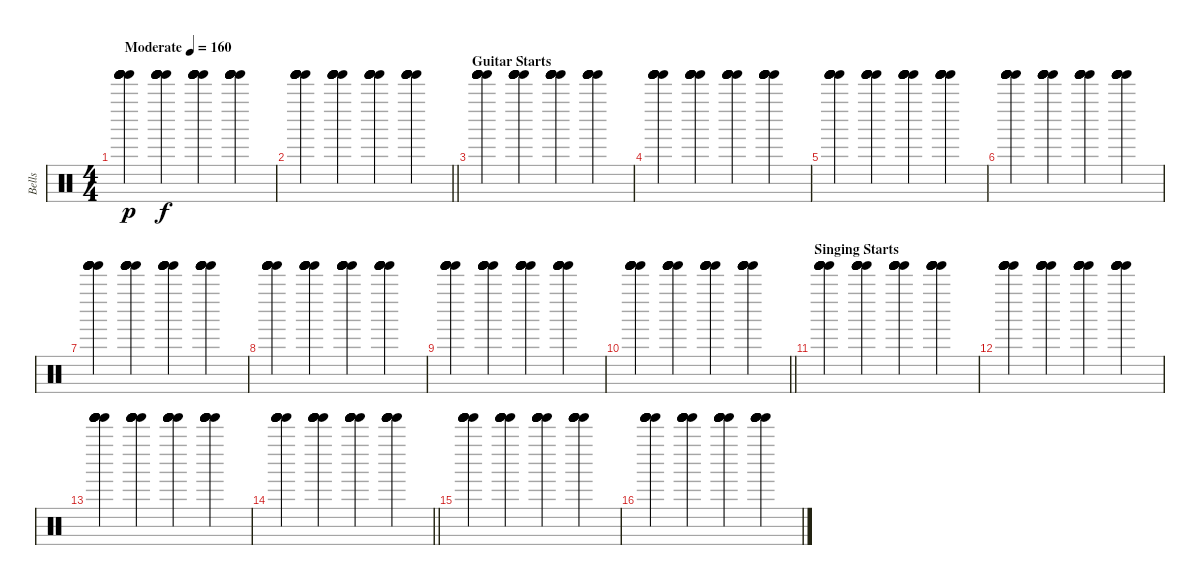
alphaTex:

\track ("Bells" "Bells") {instrument percussion}
\staff {score}
\articulation defaults
\ts (4 4)
\tempo (160 "Moderate")
\clef neutral
\ks c
("Tinkle Bell (hit)" "Tinkle Bell (hit)" "Tinkle Bell (hit)" "Tinkle Bell (hit)" "Tinkle Bell (hit)" "Tinkle Bell (hit)").4{dy p volume 10} ("Tinkle Bell (hit)" "Tinkle Bell (hit)" "Tinkle Bell (hit)" "Tinkle Bell (hit)" "Tinkle Bell (hit)" "Tinkle Bell (hit)").4{dy f} ("Tinkle Bell (hit)" "Tinkle Bell (hit)" "Tinkle Bell (hit)" "Tinkle Bell (hit)" "Tinkle Bell (hit)" "Tinkle Bell (hit)").4 ("Tinkle Bell (hit)" "Tinkle Bell (hit)" "Tinkle Bell (hit)" "Tinkle Bell (hit)" "Tinkle Bell (hit)" "Tinkle Bell (hit)").4 |
\barLineRight lightlight
("Tinkle Bell (hit)" "Tinkle Bell (hit)" "Tinkle Bell (hit)" "Tinkle Bell (hit)" "Tinkle Bell (hit)" "Tinkle Bell (hit)").4 ("Tinkle Bell (hit)" "Tinkle Bell (hit)" "Tinkle Bell (hit)" "Tinkle Bell (hit)" "Tinkle Bell (hit)" "Tinkle Bell (hit)").4 ("Tinkle Bell (hit)" "Tinkle Bell (hit)" "Tinkle Bell (hit)" "Tinkle Bell (hit)" "Tinkle Bell (hit)" "Tinkle Bell (hit)").4 ("Tinkle Bell (hit)" "Tinkle Bell (hit)" "Tinkle Bell (hit)" "Tinkle Bell (hit)" "Tinkle Bell (hit)" "Tinkle Bell (hit)").4 |
\section ("" "Guitar Starts")
("Tinkle Bell (hit)" "Tinkle Bell (hit)" "Tinkle Bell (hit)" "Tinkle Bell (hit)" "Tinkle Bell (hit)" "Tinkle Bell (hit)").4 ("Tinkle Bell (hit)" "Tinkle Bell (hit)" "Tinkle Bell (hit)" "Tinkle Bell (hit)" "Tinkle Bell (hit)" "Tinkle Bell (hit)").4 ("Tinkle Bell (hit)" "Tinkle Bell (hit)" "Tinkle Bell (hit)" "Tinkle Bell (hit)" "Tinkle Bell (hit)" "Tinkle Bell (hit)").4 ("Tinkle Bell (hit)" "Tinkle Bell (hit)" "Tinkle Bell (hit)" "Tinkle Bell (hit)" "Tinkle Bell (hit)" "Tinkle Bell (hit)").4 |
("Tinkle Bell (hit)" "Tinkle Bell (hit)" "Tinkle Bell (hit)" "Tinkle Bell (hit)" "Tinkle Bell (hit)" "Tinkle Bell (hit)").4 ("Tinkle Bell (hit)" "Tinkle Bell (hit)" "Tinkle Bell (hit)" "Tinkle Bell (hit)" "Tinkle Bell (hit)" "Tinkle Bell (hit)").4 ("Tinkle Bell (hit)" "Tinkle Bell (hit)" "Tinkle Bell (hit)" "Tinkle Bell (hit)" "Tinkle Bell (hit)" "Tinkle Bell (hit)").4 ("Tinkle Bell (hit)" "Tinkle Bell (hit)" "Tinkle Bell (hit)" "Tinkle Bell (hit)" "Tinkle Bell (hit)" "Tinkle Bell (hit)").4 |
("Tinkle Bell (hit)" "Tinkle Bell (hit)" "Tinkle Bell (hit)" "Tinkle Bell (hit)" "Tinkle Bell (hit)" "Tinkle Bell (hit)").4 ("Tinkle Bell (hit)" "Tinkle Bell (hit)" "Tinkle Bell (hit)" "Tinkle Bell (hit)" "Tinkle Bell (hit)" "Tinkle Bell (hit)").4 ("Tinkle Bell (hit)" "Tinkle Bell (hit)" "Tinkle Bell (hit)" "Tinkle Bell (hit)" "Tinkle Bell (hit)" "Tinkle Bell (hit)").4 ("Tinkle Bell (hit)" "Tinkle Bell (hit)" "Tinkle Bell (hit)" "Tinkle Bell (hit)" "Tinkle Bell (hit)" "Tinkle Bell (hit)").4 |
("Tinkle Bell (hit)" "Tinkle Bell (hit)" "Tinkle Bell (hit)" "Tinkle Bell (hit)" "Tinkle Bell (hit)" "Tinkle Bell (hit)").4 ("Tinkle Bell (hit)" "Tinkle Bell (hit)" "Tinkle Bell (hit)" "Tinkle Bell (hit)" "Tinkle Bell (hit)" "Tinkle Bell (hit)").4 ("Tinkle Bell (hit)" "Tinkle Bell (hit)" "Tinkle Bell (hit)" "Tinkle Bell (hit)" "Tinkle Bell (hit)" "Tinkle Bell (hit)").4 ("Tinkle Bell (hit)" "Tinkle Bell (hit)" "Tinkle Bell (hit)" "Tinkle Bell (hit)" "Tinkle Bell (hit)" "Tinkle Bell (hit)").4 |
("Tinkle Bell (hit)" "Tinkle Bell (hit)" "Tinkle Bell (hit)" "Tinkle Bell (hit)" "Tinkle Bell (hit)" "Tinkle Bell (hit)").4 ("Tinkle Bell (hit)" "Tinkle Bell (hit)" "Tinkle Bell (hit)" "Tinkle Bell (hit)" "Tinkle Bell (hit)" "Tinkle Bell (hit)").4 ("Tinkle Bell (hit)" "Tinkle Bell (hit)" "Tinkle Bell (hit)" "Tinkle Bell (hit)" "Tinkle Bell (hit)" "Tinkle Bell (hit)").4 ("Tinkle Bell (hit)" "Tinkle Bell (hit)" "Tinkle Bell (hit)" "Tinkle Bell (hit)" "Tinkle Bell (hit)" "Tinkle Bell (hit)").4 |
("Tinkle Bell (hit)" "Tinkle Bell (hit)" "Tinkle Bell (hit)" "Tinkle Bell (hit)" "Tinkle Bell (hit)" "Tinkle Bell (hit)").4 ("Tinkle Bell (hit)" "Tinkle Bell (hit)" "Tinkle Bell (hit)" "Tinkle Bell (hit)" "Tinkle Bell (hit)" "Tinkle Bell (hit)").4 ("Tinkle Bell (hit)" "Tinkle Bell (hit)" "Tinkle Bell (hit)" "Tinkle Bell (hit)" "Tinkle Bell (hit)" "Tinkle Bell (hit)").4 ("Tinkle Bell (hit)" "Tinkle Bell (hit)" "Tinkle Bell (hit)" "Tinkle Bell (hit)" "Tinkle Bell (hit)" "Tinkle Bell (hit)").4 |
("Tinkle Bell (hit)" "Tinkle Bell (hit)" "Tinkle Bell (hit)" "Tinkle Bell (hit)" "Tinkle Bell (hit)" "Tinkle Bell (hit)").4 ("Tinkle Bell (hit)" "Tinkle Bell (hit)" "Tinkle Bell (hit)" "Tinkle Bell (hit)" "Tinkle Bell (hit)" "Tinkle Bell (hit)").4 ("Tinkle Bell (hit)" "Tinkle Bell (hit)" "Tinkle Bell (hit)" "Tinkle Bell (hit)" "Tinkle Bell (hit)" "Tinkle Bell (hit)").4 ("Tinkle Bell (hit)" "Tinkle Bell (hit)" "Tinkle Bell (hit)" "Tinkle Bell (hit)" "Tinkle Bell (hit)" "Tinkle Bell (hit)").4 |
\barLineRight lightlight
("Tinkle Bell (hit)" "Tinkle Bell (hit)" "Tinkle Bell (hit)" "Tinkle Bell (hit)" "Tinkle Bell (hit)" "Tinkle Bell (hit)").4 ("Tinkle Bell (hit)" "Tinkle Bell (hit)" "Tinkle Bell (hit)" "Tinkle Bell (hit)" "Tinkle Bell (hit)" "Tinkle Bell (hit)").4 ("Tinkle Bell (hit)" "Tinkle Bell (hit)" "Tinkle Bell (hit)" "Tinkle Bell (hit)" "Tinkle Bell (hit)" "Tinkle Bell (hit)").4 ("Tinkle Bell (hit)" "Tinkle Bell (hit)" "Tinkle Bell (hit)" "Tinkle Bell (hit)" "Tinkle Bell (hit)" "Tinkle Bell (hit)").4 |
\section ("" "Singing Starts")
("Tinkle Bell (hit)" "Tinkle Bell (hit)" "Tinkle Bell (hit)" "Tinkle Bell (hit)" "Tinkle Bell (hit)" "Tinkle Bell (hit)").4 ("Tinkle Bell (hit)" "Tinkle Bell (hit)" "Tinkle Bell (hit)" "Tinkle Bell (hit)" "Tinkle Bell (hit)" "Tinkle Bell (hit)").4 ("Tinkle Bell (hit)" "Tinkle Bell (hit)" "Tinkle Bell (hit)" "Tinkle Bell (hit)" "Tinkle Bell (hit)" "Tinkle Bell (hit)").4 ("Tinkle Bell (hit)" "Tinkle Bell (hit)" "Tinkle Bell (hit)" "Tinkle Bell (hit)" "Tinkle Bell (hit)" "Tinkle Bell (hit)").4 |
("Tinkle Bell (hit)" "Tinkle Bell (hit)" "Tinkle Bell (hit)" "Tinkle Bell (hit)" "Tinkle Bell (hit)" "Tinkle Bell (hit)").4 ("Tinkle Bell (hit)" "Tinkle Bell (hit)" "Tinkle Bell (hit)" "Tinkle Bell (hit)" "Tinkle Bell (hit)" "Tinkle Bell (hit)").4 ("Tinkle Bell (hit)" "Tinkle Bell (hit)" "Tinkle Bell (hit)" "Tinkle Bell (hit)" "Tinkle Bell (hit)" "Tinkle Bell (hit)").4 ("Tinkle Bell (hit)" "Tinkle Bell (hit)" "Tinkle Bell (hit)" "Tinkle Bell (hit)" "Tinkle Bell (hit)" "Tinkle Bell (hit)").4 |
("Tinkle Bell (hit)" "Tinkle Bell (hit)" "Tinkle Bell (hit)" "Tinkle Bell (hit)" "Tinkle Bell (hit)" "Tinkle Bell (hit)").4 ("Tinkle Bell (hit)" "Tinkle Bell (hit)" "Tinkle Bell (hit)" "Tinkle Bell (hit)" "Tinkle Bell (hit)" "Tinkle Bell (hit)").4 ("Tinkle Bell (hit)" "Tinkle Bell (hit)" "Tinkle Bell (hit)" "Tinkle Bell (hit)" "Tinkle Bell (hit)" "Tinkle Bell (hit)").4 ("Tinkle Bell (hit)" "Tinkle Bell (hit)" "Tinkle Bell (hit)" "Tinkle Bell (hit)" "Tinkle Bell (hit)" "Tinkle Bell (hit)").4 |
\barLineRight lightlight
("Tinkle Bell (hit)" "Tinkle Bell (hit)" "Tinkle Bell (hit)" "Tinkle Bell (hit)" "Tinkle Bell (hit)" "Tinkle Bell (hit)").4 ("Tinkle Bell (hit)" "Tinkle Bell (hit)" "Tinkle Bell (hit)" "Tinkle Bell (hit)" "Tinkle Bell (hit)" "Tinkle Bell (hit)").4 ("Tinkle Bell (hit)" "Tinkle Bell (hit)" "Tinkle Bell (hit)" "Tinkle Bell (hit)" "Tinkle Bell (hit)" "Tinkle Bell (hit)").4 ("Tinkle Bell (hit)" "Tinkle Bell (hit)" "Tinkle Bell (hit)" "Tinkle Bell (hit)" "Tinkle Bell (hit)" "Tinkle Bell (hit)").4 |
("Tinkle Bell (hit)" "Tinkle Bell (hit)" "Tinkle Bell (hit)" "Tinkle Bell (hit)" "Tinkle Bell (hit)" "Tinkle Bell (hit)").4 ("Tinkle Bell (hit)" "Tinkle Bell (hit)" "Tinkle Bell (hit)" "Tinkle Bell (hit)" "Tinkle Bell (hit)" "Tinkle Bell (hit)").4 ("Tinkle Bell (hit)" "Tinkle Bell (hit)" "Tinkle Bell (hit)" "Tinkle Bell (hit)" "Tinkle Bell (hit)" "Tinkle Bell (hit)").4 ("Tinkle Bell (hit)" "Tinkle Bell (hit)" "Tinkle Bell (hit)" "Tinkle Bell (hit)" "Tinkle Bell (hit)" "Tinkle Bell (hit)").4 |
("Tinkle Bell (hit)" "Tinkle Bell (hit)" "Tinkle Bell (hit)" "Tinkle Bell (hit)" "Tinkle Bell (hit)" "Tinkle Bell (hit)").4 ("Tinkle Bell (hit)" "Tinkle Bell (hit)" "Tinkle Bell (hit)" "Tinkle Bell (hit)" "Tinkle Bell (hit)" "Tinkle Bell (hit)").4 ("Tinkle Bell (hit)" "Tinkle Bell (hit)" "Tinkle Bell (hit)" "Tinkle Bell (hit)" "Tinkle Bell (hit)" "Tinkle Bell (hit)").4 ("Tinkle Bell (hit)" "Tinkle Bell (hit)" "Tinkle Bell (hit)" "Tinkle Bell (hit)" "Tinkle Bell (hit)" "Tinkle Bell (hit)").4
